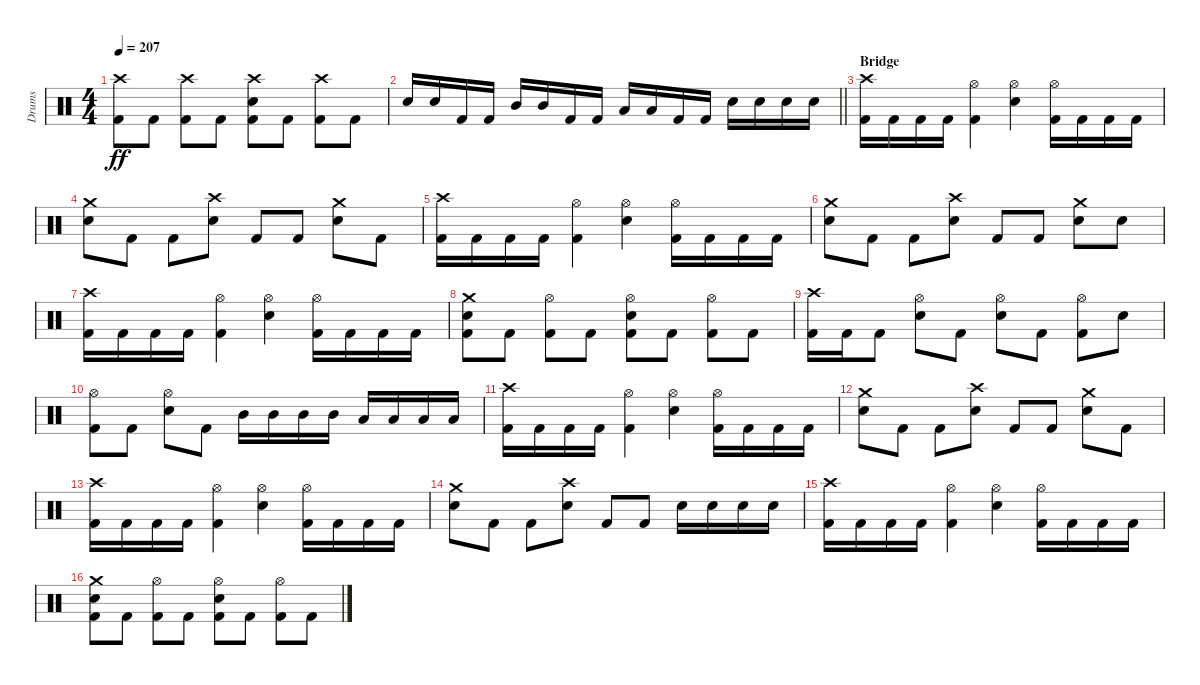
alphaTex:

\track ("Drums" "Drums") {instrument percussion}
\staff {score}
\articulation defaults
\ts (4 4)
\tempo 207
\clef neutral
\ks c
("Crash high (hit)" "Kick (hit) 2").8{dy ff} "Kick (hit) 2".8 ("Crash high (hit)" "Kick (hit) 2").8 "Kick (hit) 2".8 ("Crash high (hit)" "Snare (hit) 2" "Kick (hit) 2").8 "Kick (hit) 2".8 ("Crash high (hit)" "Kick (hit) 2").8 "Kick (hit) 2".8 |
\barLineRight lightlight "Snare (hit) 2".16 "Snare (hit) 2".16 "Kick (hit) 2".16 "Kick (hit) 2".16 "Mid Tom (hit)".16 "Mid Tom (hit)".16 "Kick (hit) 2".16 "Kick (hit) 2".16 "Low Tom (hit)".16 "Low Tom (hit)".16 "Kick (hit) 2".16 "Kick (hit) 2".16 "Snare (hit) 2".16 "Snare (hit) 2".16 "Snare (hit) 2".16 "Snare (hit) 2".16
|
\section ("" "Bridge")
("Crash high (hit)" "Kick (hit) 2").16 "Kick (hit) 2".16 "Kick (hit) 2".16 "Kick (hit) 2".16 ("Hi-Hat (open)" "Kick (hit) 2").4 ("Hi-Hat (open)" "Snare (hit) 2").4 ("Hi-Hat (open)" "Kick (hit) 2").16 "Kick (hit) 2".16 "Kick (hit) 2".16 "Kick (hit) 2".16 |
("Crash medium (hit)" "Snare (hit) 2").8 "Kick (hit) 2".8 "Kick (hit) 2".8 ("Crash high (hit)" "Snare (hit) 2").8 "Kick (hit) 2".8 "Kick (hit) 2".8 ("Crash medium (hit)" "Snare (hit) 2").8 "Kick (hit) 2".8 |
("Crash high (hit)" "Kick (hit) 2").16 "Kick (hit) 2".16 "Kick (hit) 2".16 "Kick (hit) 2".16 ("Hi-Hat (open)" "Kick (hit) 2").4 ("Hi-Hat (open)" "Snare (hit) 2").4 ("Hi-Hat (open)" "Kick (hit) 2").16 "Kick (hit) 2".16 "Kick (hit) 2".16 "Kick (hit) 2".16 |
("Crash medium (hit)" "Snare (hit) 2").8 "Kick (hit) 2".8 "Kick (hit) 2".8 ("Crash high (hit)" "Snare (hit) 2").8 "Kick (hit) 2".8 "Kick (hit) 2".8 ("Crash medium (hit)" "Snare (hit) 2").8 "Snare (hit) 2".8 |
("Crash high (hit)" "Kick (hit) 2").16 "Kick (hit) 2".16 "Kick (hit) 2".16 "Kick (hit) 2".16 ("Hi-Hat (open)" "Kick (hit) 2").4 ("Hi-Hat (open)" "Snare (hit) 2").4 ("Hi-Hat (open)" "Kick (hit) 2").16 "Kick (hit) 2".16 "Kick (hit) 2".16 "Kick (hit) 2".16 |
("Crash medium (hit)" "Snare (hit) 2" "Kick (hit) 2").8 "Kick (hit) 2".8 ("Hi-Hat (open)" "Kick (hit) 2").8 "Kick (hit) 2".8 ("Hi-Hat (open)" "Snare (hit) 2" "Kick (hit) 2").8 "Kick (hit) 2".8 ("Hi-Hat (open)" "Kick (hit) 2").8 "Kick (hit) 2".8 |
("Crash high (hit)" "Kick (hit) 2").16 "Kick (hit) 2".16 "Kick (hit) 2".8 ("Hi-Hat (open)" "Snare (hit) 2").8 "Kick (hit) 2".8 ("Hi-Hat (open)" "Snare (hit) 2").8 "Kick (hit) 2".8 ("Hi-Hat (open)" "Kick (hit) 2").8 "Snare (hit) 2".8 |
("Hi-Hat (open)" "Kick (hit) 2").8 "Kick (hit) 2".8 ("Hi-Hat (open)" "Snare (hit) 2").8 "Kick (hit) 2".8 "Mid Tom (hit)".16 "Mid Tom (hit)".16 "Mid Tom (hit)".16 "Mid Tom (hit)".16 "Low Tom (hit)".16 "Low Tom (hit)".16 "Low Tom (hit)".16 "Low Tom (hit)".16 |
("Crash high (hit)" "Kick (hit) 2").16 "Kick (hit) 2".16 "Kick (hit) 2".16 "Kick (hit) 2".16 ("Hi-Hat (open)" "Kick (hit) 2").4 ("Hi-Hat (open)" "Snare (hit) 2").4 ("Hi-Hat (open)" "Kick (hit) 2").16 "Kick (hit) 2".16 "Kick (hit) 2".16 "Kick (hit) 2".16 |
("Crash medium (hit)" "Snare (hit) 2").8 "Kick (hit) 2".8 "Kick (hit) 2".8 ("Crash high (hit)" "Snare (hit) 2").8 "Kick (hit) 2".8 "Kick (hit) 2".8 ("Crash medium (hit)" "Snare (hit) 2").8 "Kick (hit) 2".8 |
("Crash high (hit)" "Kick (hit) 2").16 "Kick (hit) 2".16 "Kick (hit) 2".16 "Kick (hit) 2".16 ("Hi-Hat (open)" "Kick (hit) 2").4 ("Hi-Hat (open)" "Snare (hit) 2").4 ("Hi-Hat (open)" "Kick (hit) 2").16 "Kick (hit) 2".16 "Kick (hit) 2".16 "Kick (hit) 2".16 |
("Crash medium (hit)" "Snare (hit) 2").8 "Kick (hit) 2".8 "Kick (hit) 2".8 ("Crash high (hit)" "Snare (hit) 2").8 "Kick (hit) 2".8 "Kick (hit) 2".8 "Snare (hit) 2".16 "Snare (hit) 2".16 "Snare (hit) 2".16 "Snare (hit) 2".16 |
("Crash high (hit)" "Kick (hit) 2").16 "Kick (hit) 2".16 "Kick (hit) 2".16 "Kick (hit) 2".16 ("Hi-Hat (open)" "Kick (hit) 2").4 ("Hi-Hat (open)" "Snare (hit) 2").4 ("Hi-Hat (open)" "Kick (hit) 2").16 "Kick (hit) 2".16 "Kick (hit) 2".16 "Kick (hit) 2".16 |
("Crash medium (hit)" "Snare (hit) 2" "Kick (hit) 2").8 "Kick (hit) 2".8 ("Hi-Hat (open)" "Kick (hit) 2").8 "Kick (hit) 2".8 ("Hi-Hat (open)" "Snare (hit) 2" "Kick (hit) 2").8 "Kick (hit) 2".8 ("Hi-Hat (open)" "Kick (hit) 2").8 "Kick (hit) 2".8
